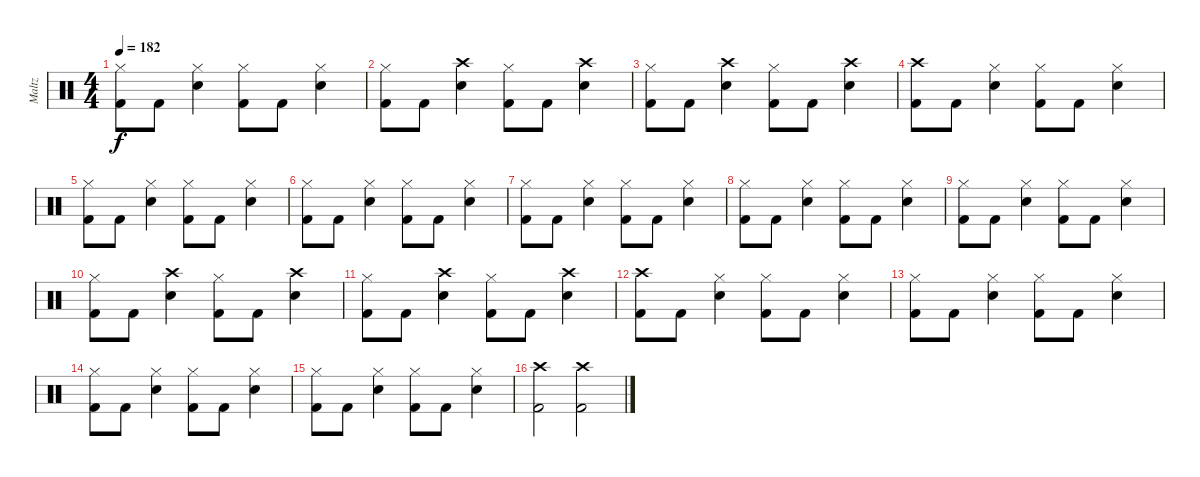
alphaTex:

\track ("Maltz" "Maltz") {instrument percussion}
\staff {score}
\articulation defaults
\ts (4 4)
\tempo 182
\clef neutral
\ks c
("Hi-Hat (closed)" "Kick (hit) 2").8{dy f} "Kick (hit) 2".8 ("Hi-Hat (closed)" "Electric Snare (hit)").4 ("Hi-Hat (closed)" "Kick (hit) 2").8 "Kick (hit) 2".8 ("Hi-Hat (closed)" "Electric Snare (hit)").4 |
("Hi-Hat (closed)" "Kick (hit) 2").8 "Kick (hit) 2".8 ("Crash high (hit)" "Electric Snare (hit)").4 ("Hi-Hat (closed)" "Kick (hit) 2").8 "Kick (hit) 2".8 ("Crash high (hit)" "Electric Snare (hit)").4 |
("Hi-Hat (closed)" "Kick (hit) 2").8 "Kick (hit) 2".8 ("Crash high (hit)" "Electric Snare (hit)").4 ("Hi-Hat (closed)" "Kick (hit) 2").8 "Kick (hit) 2".8 ("Crash high (hit)" "Electric Snare (hit)").4 |
("Crash high (hit)" "Kick (hit) 2").8 "Kick (hit) 2".8 ("Hi-Hat (closed)" "Electric Snare (hit)").4 ("Hi-Hat (closed)" "Kick (hit) 2").8 "Kick (hit) 2".8 ("Hi-Hat (closed)" "Electric Snare (hit)").4 |
("Hi-Hat (closed)" "Kick (hit) 2").8 "Kick (hit) 2".8 ("Hi-Hat (closed)" "Electric Snare (hit)").4 ("Hi-Hat (closed)" "Kick (hit) 2").8 "Kick (hit) 2".8 ("Hi-Hat (closed)" "Electric Snare (hit)").4 |
("Hi-Hat (closed)" "Kick (hit) 2").8 "Kick (hit) 2".8 ("Hi-Hat (closed)" "Electric Snare (hit)").4 ("Hi-Hat (closed)" "Kick (hit) 2").8 "Kick (hit) 2".8 ("Hi-Hat (closed)" "Electric Snare (hit)").4 |
("Hi-Hat (closed)" "Kick (hit) 2").8 "Kick (hit) 2".8 ("Hi-Hat (closed)" "Electric Snare (hit)").4 ("Hi-Hat (closed)" "Kick (hit) 2").8 "Kick (hit) 2".8 ("Hi-Hat (closed)" "Electric Snare (hit)").4 |
("Hi-Hat (closed)" "Kick (hit) 2").8 "Kick (hit) 2".8 ("Hi-Hat (closed)" "Electric Snare (hit)").4 ("Hi-Hat (closed)" "Kick (hit) 2").8 "Kick (hit) 2".8 ("Hi-Hat (closed)" "Electric Snare (hit)").4 |
("Hi-Hat (closed)" "Kick (hit) 2").8 "Kick (hit) 2".8 ("Hi-Hat (closed)" "Electric Snare (hit)").4 ("Hi-Hat (closed)" "Kick (hit) 2").8 "Kick (hit) 2".8 ("Hi-Hat (closed)" "Electric Snare (hit)").4 |
("Hi-Hat (closed)" "Kick (hit) 2").8 "Kick (hit) 2".8 ("Crash high (hit)" "Electric Snare (hit)").4 ("Hi-Hat (closed)" "Kick (hit) 2").8 "Kick (hit) 2".8 ("Crash high (hit)" "Electric Snare (hit)").4 |
("Hi-Hat (closed)" "Kick (hit) 2").8 "Kick (hit) 2".8 ("Crash high (hit)" "Electric Snare (hit)").4 ("Hi-Hat (closed)" "Kick (hit) 2").8 "Kick (hit) 2".8 ("Crash high (hit)" "Electric Snare (hit)").4 |
("Crash high (hit)" "Kick (hit) 2").8 "Kick (hit) 2".8 ("Hi-Hat (closed)" "Electric Snare (hit)").4 ("Hi-Hat (closed)" "Kick (hit) 2").8 "Kick (hit) 2".8 ("Hi-Hat (closed)" "Electric Snare (hit)").4 |
("Hi-Hat (closed)" "Kick (hit) 2").8 "Kick (hit) 2".8 ("Hi-Hat (closed)" "Electric Snare (hit)").4 ("Hi-Hat (closed)" "Kick (hit) 2").8 "Kick (hit) 2".8 ("Hi-Hat (closed)" "Electric Snare (hit)").4 |
("Hi-Hat (closed)" "Kick (hit) 2").8 "Kick (hit) 2".8 ("Hi-Hat (closed)" "Electric Snare (hit)").4 ("Hi-Hat (closed)" "Kick (hit) 2").8 "Kick (hit) 2".8 ("Hi-Hat (closed)" "Electric Snare (hit)").4 |
("Hi-Hat (closed)" "Kick (hit) 2").8 "Kick (hit) 2".8 ("Hi-Hat (closed)" "Electric Snare (hit)").4 ("Hi-Hat (closed)" "Kick (hit) 2").8 "Kick (hit) 2".8 ("Hi-Hat (closed)" "Electric Snare (hit)").4 |
("Crash high (hit)" "Kick (hit) 2").2 ("Crash high (hit)" "Kick (hit) 2").2
